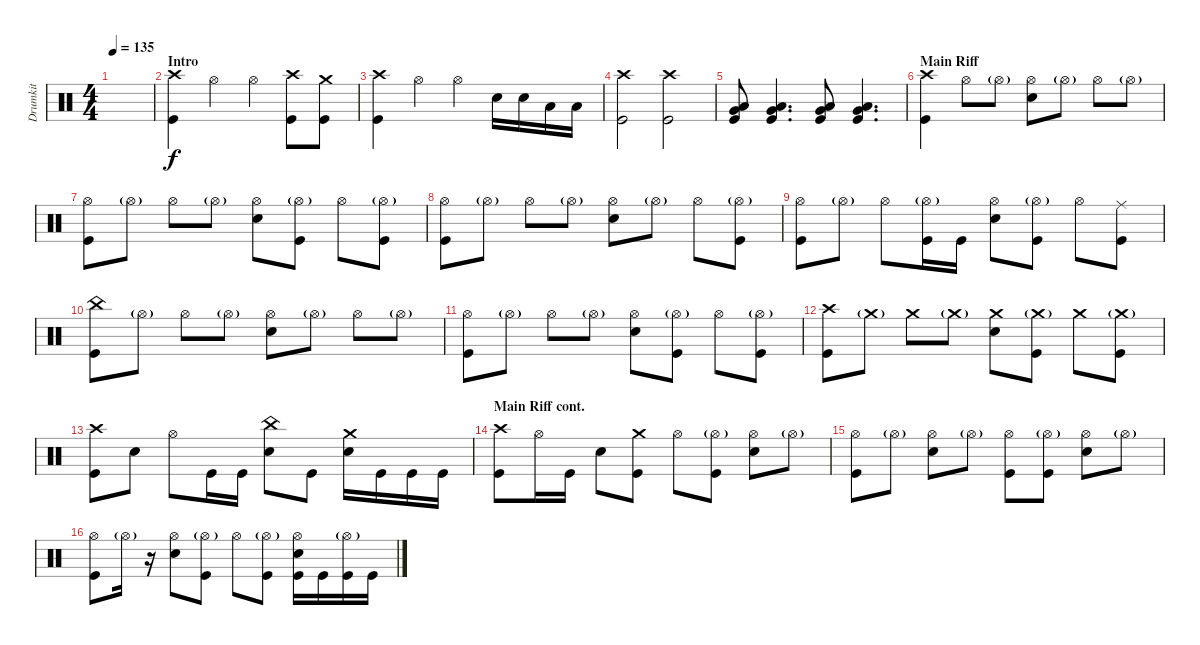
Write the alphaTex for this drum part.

\track ("Drumkit" "Drumkit") {instrument percussion}
\staff {score}
\articulation defaults
\ts (4 4)
\tempo 135
\clef neutral
\ks c
|
\section ("" "Intro")
("Kick (hit)" "Crash high (hit)").4 "Hi-Hat (open)".4 "Hi-Hat (open)".4 ("Kick (hit)" "Crash high (hit)").8 ("Kick (hit)" "Crash medium (hit)").8 |
("Kick (hit)" "Crash high (hit)").4 "Hi-Hat (open)".4 "Hi-Hat (open)".4 "Snare (hit) 2".16 "Snare (hit) 2".16 "Low Floor Tom (hit)".16 "Low Floor Tom (hit)".16 |
("Kick (hit)" "Crash high (hit)").2 ("Kick (hit)" "Crash high (hit)").2 |
("Low Floor Tom (hit)" "Kick (hit)" "Very Low Tom (hit)").8 ("Low Floor Tom (hit)" "Kick (hit)" "Very Low Tom (hit)").4{d} ("Low Floor Tom (hit)" "Kick (hit)" "Very Low Tom (hit)").8 ("Low Floor Tom (hit)" "Kick (hit)" "Very Low Tom (hit)").4{d} |
\section ("" "Main Riff")
("Kick (hit)" "Crash high (hit)").4 "Hi-Hat (open)".8 "Hi-Hat (open)"{g}.8 ("Hi-Hat (open)" "Snare (hit) 2").8 "Hi-Hat (open)"{g}.8 "Hi-Hat (open)".8 "Hi-Hat (open)"{g}.8 |
("Hi-Hat (open)" "Kick (hit)").8 "Hi-Hat (open)"{g}.8 "Hi-Hat (open)".8 "Hi-Hat (open)"{g}.8 ("Hi-Hat (open)" "Snare (hit) 2").8 ("Kick (hit)" "Hi-Hat (open)"{g}).8 "Hi-Hat (open)".8 ("Kick (hit)" "Hi-Hat (open)"{g}).8 |
("Hi-Hat (open)" "Kick (hit)").8 "Hi-Hat (open)"{g}.8 "Hi-Hat (open)".8 "Hi-Hat (open)"{g}.8 ("Hi-Hat (open)" "Snare (hit) 2").8 "Hi-Hat (open)"{g}.8 "Hi-Hat (open)".8 ("Kick (hit)" "Hi-Hat (open)"{g}).8 |
("Hi-Hat (open)" "Kick (hit)").8 "Hi-Hat (open)"{g}.8 "Hi-Hat (open)".8 ("Kick (hit)" "Hi-Hat (open)"{g}).16 "Kick (hit)".16 ("Hi-Hat (open)" "Snare (hit) 2").8 ("Kick (hit)" "Hi-Hat (open)"{g}).8 "Hi-Hat (open)".8 ("Kick (hit)" "Ride (middle)").8 |
("Kick (hit)" "China (hit)").8 "Hi-Hat (open)"{g}.8 "Hi-Hat (open)".8 "Hi-Hat (open)"{g}.8 ("Hi-Hat (open)" "Snare (hit) 2").8 "Hi-Hat (open)"{g}.8 "Hi-Hat (open)".8 "Hi-Hat (open)"{g}.8 |
("Hi-Hat (open)" "Kick (hit)").8 "Hi-Hat (open)"{g}.8 "Hi-Hat (open)".8 "Hi-Hat (open)"{g}.8 ("Hi-Hat (open)" "Snare (hit) 2").8 ("Kick (hit)" "Hi-Hat (open)"{g}).8 "Hi-Hat (open)".8 ("Kick (hit)" "Hi-Hat (open)"{g}).8 |
("Kick (hit)" "Crash high (hit)").8 "Crash medium (hit)"{g}.8 "Crash medium (hit)".8 "Crash medium (hit)"{g}.8 ("Snare (hit) 2" "Crash medium (hit)").8 ("Kick (hit)" "Crash medium (hit)"{g}).8 "Crash medium (hit)".8 ("Kick (hit)" "Crash medium (hit)"{g}).8 |
("Kick (hit)" "Crash high (hit)").8 "Snare (hit) 2".8 "Hi-Hat (open)".8 "Kick (hit)".16 "Kick (hit)".16 ("Snare (hit) 2" "China (hit)").8 "Kick (hit)".8 ("Snare (hit) 2" "Crash medium (hit)").16 "Kick (hit)".16 "Kick (hit)".16 "Kick (hit)".16 |
\section ("" "Main Riff cont.")
("Kick (hit)" "Crash high (hit)").8 "Hi-Hat (open)".16 "Kick (hit)".16 "Snare (hit) 2".8 ("Kick (hit)" "Crash medium (hit)").8 "Hi-Hat (open)".8 ("Kick (hit)" "Hi-Hat (open)"{g}).8 ("Snare (hit) 2" "Hi-Hat (open)").8 "Hi-Hat (open)"{g}.8 |
("Kick (hit)" "Hi-Hat (open)").8 "Hi-Hat (open)"{g}.8 ("Snare (hit) 2" "Hi-Hat (open)").8 "Hi-Hat (open)"{g}.8 ("Hi-Hat (open)" "Kick (hit)").8 ("Kick (hit)" "Hi-Hat (open)"{g}).8 ("Snare (hit) 2" "Hi-Hat (open)").8 "Hi-Hat (open)"{g}.8 |
("Kick (hit)" "Hi-Hat (open)").8 "Hi-Hat (open)"{g}.16 r.16 ("Snare (hit) 2" "Hi-Hat (open)").8 ("Hi-Hat (open)"{g} "Kick (hit)").8 "Hi-Hat (open)".8 ("Kick (hit)" "Hi-Hat (open)"{g}).8 ("Snare (hit) 2" "Hi-Hat (open)" "Kick (hit)").16 "Kick (hit)".16 ("Kick (hit)" "Hi-Hat (open)"{g}).16 "Kick (hit)".16
